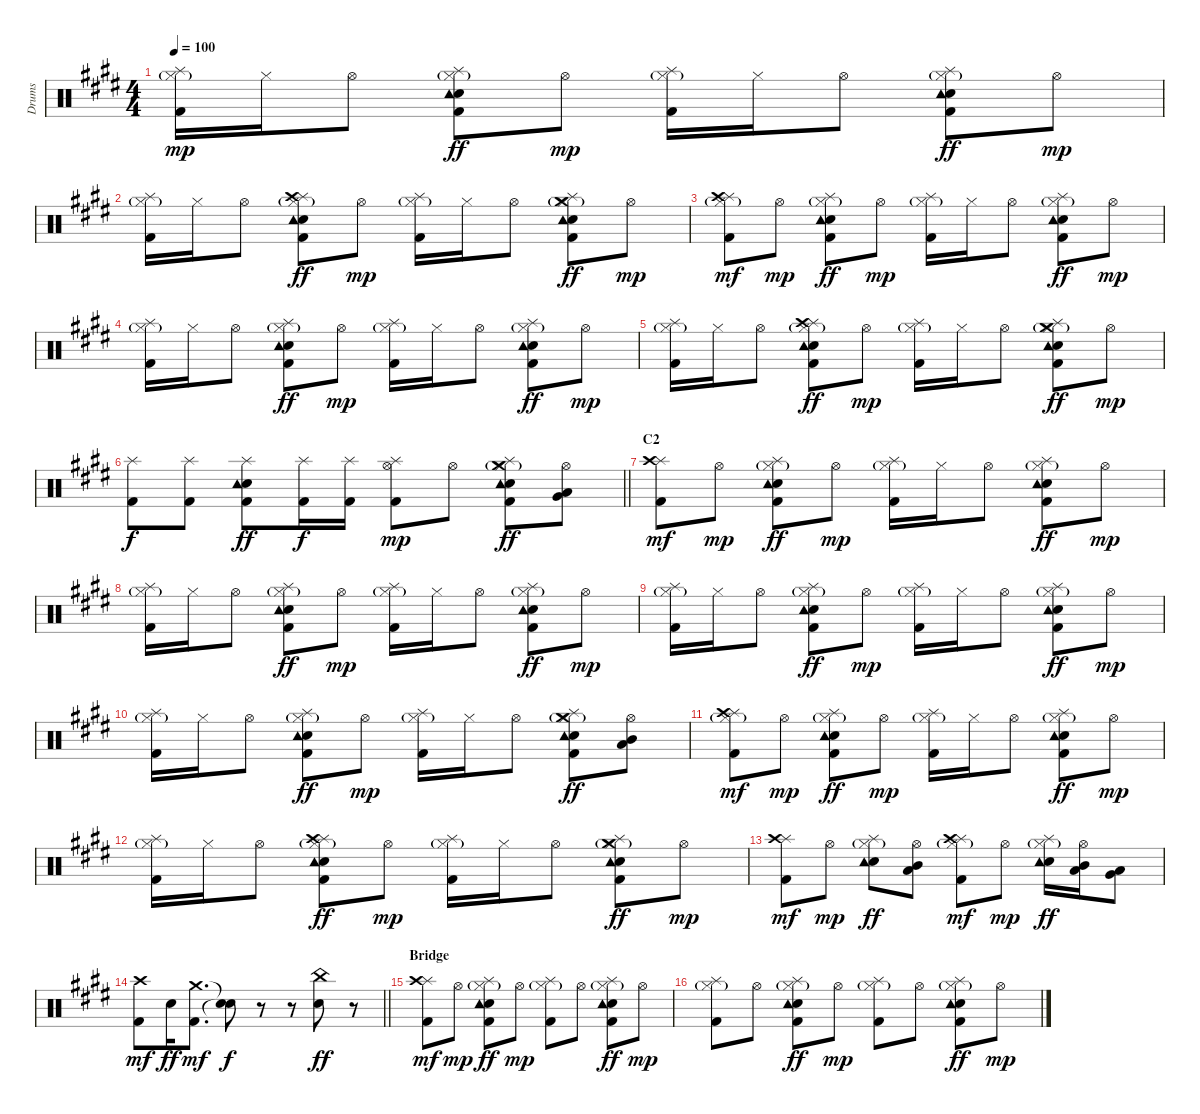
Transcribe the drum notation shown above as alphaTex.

\track ("Drums" "Drums") {instrument percussion}
\staff {score}
\articulation defaults
\ts (4 4)
\tempo 100
\clef neutral
\ks e
("Splash (hit)" "Hi-Hat (closed)"{g} "Kick (hit) 2").16{dy mp} "Hi-Hat (closed)".16 "Hi-Hat (open)".8 ("Splash (hit)" "Hi-Hat (closed)"{g} "Hand Clap (hit)" "Kick (hit) 2" "Tambourine (hit)").8{dy ff} "Hi-Hat (open)".8{dy mp} ("Splash (hit)" "Hi-Hat (closed)"{g} "Kick (hit) 2").16 "Hi-Hat (closed)".16 "Hi-Hat (open)".8 ("Splash (hit)" "Hi-Hat (closed)"{g} "Hand Clap (hit)" "Kick (hit) 2" "Tambourine (hit)").8{dy ff} "Hi-Hat (open)".8{dy mp} |
("Splash (hit)" "Hi-Hat (closed)"{g} "Kick (hit) 2").16 "Hi-Hat (closed)".16 "Hi-Hat (open)".8 ("Splash (hit)" "Hi-Hat (closed)"{g} "Crash high (hit)" "Hand Clap (hit)" "Kick (hit) 2" "Tambourine (hit)").8{dy ff} "Hi-Hat (open)".8{dy mp} ("Splash (hit)" "Hi-Hat (closed)"{g} "Kick (hit) 2").16 "Hi-Hat (closed)".16 "Hi-Hat (open)".8 ("Splash (hit)" "Hi-Hat (closed)"{g} "Crash medium (hit)" "Hand Clap (hit)" "Kick (hit) 2" "Tambourine (hit)").8{dy ff} "Hi-Hat (open)".8{dy mp} |
("Splash (hit)" "Hi-Hat (closed)"{g} "Crash high (hit)" "Kick (hit) 2").8{dy mf} "Hi-Hat (open)".8{dy mp} ("Splash (hit)" "Hi-Hat (closed)"{g} "Hand Clap (hit)" "Kick (hit) 2" "Tambourine (hit)").8{dy ff} "Hi-Hat (open)".8{dy mp} ("Splash (hit)" "Hi-Hat (closed)"{g} "Kick (hit) 2").16 "Hi-Hat (closed)".16 "Hi-Hat (open)".8 ("Splash (hit)" "Hi-Hat (closed)"{g} "Hand Clap (hit)" "Kick (hit) 2" "Tambourine (hit)").8{dy ff} "Hi-Hat (open)".8{dy mp} |
("Splash (hit)" "Hi-Hat (closed)"{g} "Kick (hit) 2").16 "Hi-Hat (closed)".16 "Hi-Hat (open)".8 ("Splash (hit)" "Hi-Hat (closed)"{g} "Hand Clap (hit)" "Kick (hit) 2" "Tambourine (hit)").8{dy ff} "Hi-Hat (open)".8{dy mp} ("Splash (hit)" "Hi-Hat (closed)"{g} "Kick (hit) 2").16 "Hi-Hat (closed)".16 "Hi-Hat (open)".8 ("Splash (hit)" "Hi-Hat (closed)"{g} "Hand Clap (hit)" "Kick (hit) 2" "Tambourine (hit)").8{dy ff} "Hi-Hat (open)".8{dy mp} |
("Splash (hit)" "Hi-Hat (closed)"{g} "Kick (hit) 2").16 "Hi-Hat (closed)".16 "Hi-Hat (open)".8 ("Splash (hit)" "Hi-Hat (closed)"{g} "Crash high (hit)" "Hand Clap (hit)" "Kick (hit) 2" "Tambourine (hit)").8{dy ff} "Hi-Hat (open)".8{dy mp} ("Splash (hit)" "Hi-Hat (closed)"{g} "Kick (hit) 2").16 "Hi-Hat (closed)".16 "Hi-Hat (open)".8 ("Splash (hit)" "Hi-Hat (closed)"{g} "Crash medium (hit)" "Hand Clap (hit)" "Kick (hit) 2" "Tambourine (hit)").8{dy ff} "Hi-Hat (open)".8{dy mp} |
\barLineRight lightlight
("Splash (hit)" "Kick (hit) 2").8{dy f} ("Splash (hit)" "Kick (hit) 2").8 ("Splash (hit)" "Hand Clap (hit)" "Kick (hit) 2" "Tambourine (hit)").8{dy ff} ("Splash (hit)" "Kick (hit) 2").16{dy f} ("Splash (hit)" "Kick (hit) 2").16 ("Splash (hit)" "Hi-Hat (open)" "Kick (hit) 2").8{dy mp} "Hi-Hat (open)".8 ("Splash (hit)" "Hi-Hat (closed)"{g} "Crash medium (hit)" "Hand Clap (hit)" "Kick (hit) 2" "Tambourine (hit)").8{dy ff} ("Hi-Hat (open)" "Low Tom (hit)" "Very Low Tom (hit)").8 |
\section ("" "C2")
("Splash (hit)" "Crash high (hit)" "Kick (hit) 2").8{dy mf} "Hi-Hat (open)".8{dy mp} ("Splash (hit)" "Hi-Hat (closed)"{g} "Hand Clap (hit)" "Kick (hit) 2" "Tambourine (hit)").8{dy ff} "Hi-Hat (open)".8{dy mp} ("Splash (hit)" "Hi-Hat (closed)"{g} "Kick (hit) 2").16 "Hi-Hat (closed)".16 "Hi-Hat (open)".8 ("Splash (hit)" "Hi-Hat (closed)"{g} "Hand Clap (hit)" "Kick (hit) 2" "Tambourine (hit)").8{dy ff} "Hi-Hat (open)".8{dy mp} |
("Splash (hit)" "Hi-Hat (closed)"{g} "Kick (hit) 2").16 "Hi-Hat (closed)".16 "Hi-Hat (open)".8 ("Splash (hit)" "Hi-Hat (closed)"{g} "Hand Clap (hit)" "Kick (hit) 2" "Tambourine (hit)").8{dy ff} "Hi-Hat (open)".8{dy mp} ("Splash (hit)" "Hi-Hat (closed)"{g} "Kick (hit) 2").16 "Hi-Hat (closed)".16 "Hi-Hat (open)".8 ("Splash (hit)" "Hi-Hat (closed)"{g} "Hand Clap (hit)" "Kick (hit) 2" "Tambourine (hit)").8{dy ff} "Hi-Hat (open)".8{dy mp} |
("Splash (hit)" "Hi-Hat (closed)"{g} "Kick (hit) 2").16 "Hi-Hat (closed)".16 "Hi-Hat (open)".8 ("Splash (hit)" "Hi-Hat (closed)"{g} "Hand Clap (hit)" "Kick (hit) 2" "Tambourine (hit)").8{dy ff} "Hi-Hat (open)".8{dy mp} ("Splash (hit)" "Hi-Hat (closed)"{g} "Kick (hit) 2").16 "Hi-Hat (closed)".16 "Hi-Hat (open)".8 ("Splash (hit)" "Hi-Hat (closed)"{g} "Hand Clap (hit)" "Kick (hit) 2" "Tambourine (hit)").8{dy ff} "Hi-Hat (open)".8{dy mp} |
("Splash (hit)" "Hi-Hat (closed)"{g} "Kick (hit) 2").16 "Hi-Hat (closed)".16 "Hi-Hat (open)".8 ("Splash (hit)" "Hi-Hat (closed)"{g} "Hand Clap (hit)" "Kick (hit) 2" "Tambourine (hit)").8{dy ff} "Hi-Hat (open)".8{dy mp} ("Splash (hit)" "Hi-Hat (closed)"{g} "Kick (hit) 2").16 "Hi-Hat (closed)".16 "Hi-Hat (open)".8 ("Splash (hit)" "Hi-Hat (closed)"{g} "Crash medium (hit)" "Hand Clap (hit)" "Kick (hit) 2" "Tambourine (hit)").8{dy ff} ("Hi-Hat (open)" "Mid Tom (hit)" "Low Tom (hit)").8 |
("Splash (hit)" "Hi-Hat (closed)"{g} "Crash high (hit)" "Kick (hit) 2").8{dy mf} "Hi-Hat (open)".8{dy mp} ("Splash (hit)" "Hi-Hat (closed)"{g} "Hand Clap (hit)" "Kick (hit) 2" "Tambourine (hit)").8{dy ff} "Hi-Hat (open)".8{dy mp} ("Splash (hit)" "Hi-Hat (closed)"{g} "Kick (hit) 2").16 "Hi-Hat (closed)".16 "Hi-Hat (open)".8 ("Splash (hit)" "Hi-Hat (closed)"{g} "Hand Clap (hit)" "Kick (hit) 2" "Tambourine (hit)").8{dy ff} "Hi-Hat (open)".8{dy mp} |
("Splash (hit)" "Hi-Hat (closed)"{g} "Kick (hit) 2").16 "Hi-Hat (closed)".16 "Hi-Hat (open)".8 ("Splash (hit)" "Hi-Hat (closed)"{g} "Crash high (hit)" "Hand Clap (hit)" "Kick (hit) 2" "Tambourine (hit)").8{dy ff} "Hi-Hat (open)".8{dy mp} ("Splash (hit)" "Hi-Hat (closed)"{g} "Kick (hit) 2").16 "Hi-Hat (closed)".16 "Hi-Hat (open)".8 ("Splash (hit)" "Hi-Hat (closed)"{g} "Crash medium (hit)" "Hand Clap (hit)" "Kick (hit) 2" "Tambourine (hit)").8{dy ff} "Hi-Hat (open)".8{dy mp} |
("Splash (hit)" "Crash high (hit)" "Kick (hit) 2").8{dy mf} "Hi-Hat (open)".8{dy mp} ("Splash (hit)" "Hi-Hat (closed)"{g} "Hand Clap (hit)" "Tambourine (hit)").8{dy ff} ("Hi-Hat (open)" "Mid Tom (hit)" "Low Tom (hit)").8 ("Splash (hit)" "Hi-Hat (closed)"{g} "Crash high (hit)" "Kick (hit) 2").8{dy mf} "Hi-Hat (open)".8{dy mp} ("Splash (hit)" "Hi-Hat (closed)"{g} "Hand Clap (hit)" "Tambourine (hit)").16{dy ff} ("Hi-Hat (open)" "Mid Tom (hit)" "Low Tom (hit)").16 ("Low Tom (hit)" "Very Low Tom (hit)").8 |
\barLineRight lightlight
("Crash high (hit)" "Kick (hit) 2").8{dy mf} "Hand Clap (hit)".16{dy ff} ("Crash medium (hit)" "Kick (hit) 2").8{d dy mf} ("Snare (hit)"{t} "Snare (hit)"{t}).8{dy f} r.8 r.8 ("China (hit)" "Hand Clap (hit)").8{dy ff} r.8 |
\section ("" "Bridge")
("Splash (hit)" "Crash high (hit)" "Kick (hit) 2").8{dy mf} "Hi-Hat (open)".8{dy mp} ("Splash (hit)" "Hi-Hat (closed)"{g} "Hand Clap (hit)" "Kick (hit) 2" "Tambourine (hit)").8{dy ff} "Hi-Hat (open)".8{dy mp} ("Splash (hit)" "Hi-Hat (closed)"{g} "Kick (hit) 2").8 "Hi-Hat (open)".8 ("Splash (hit)" "Hi-Hat (closed)"{g} "Hand Clap (hit)" "Kick (hit) 2" "Tambourine (hit)").8{dy ff} "Hi-Hat (open)".8{dy mp} |
("Splash (hit)" "Hi-Hat (closed)"{g} "Kick (hit) 2").8 "Hi-Hat (open)".8 ("Splash (hit)" "Hi-Hat (closed)"{g} "Hand Clap (hit)" "Kick (hit) 2" "Tambourine (hit)").8{dy ff} "Hi-Hat (open)".8{dy mp} ("Splash (hit)" "Hi-Hat (closed)"{g} "Kick (hit) 2").8 "Hi-Hat (open)".8 ("Splash (hit)" "Hi-Hat (closed)"{g} "Hand Clap (hit)" "Kick (hit) 2" "Tambourine (hit)").8{dy ff} "Hi-Hat (open)".8{dy mp}
